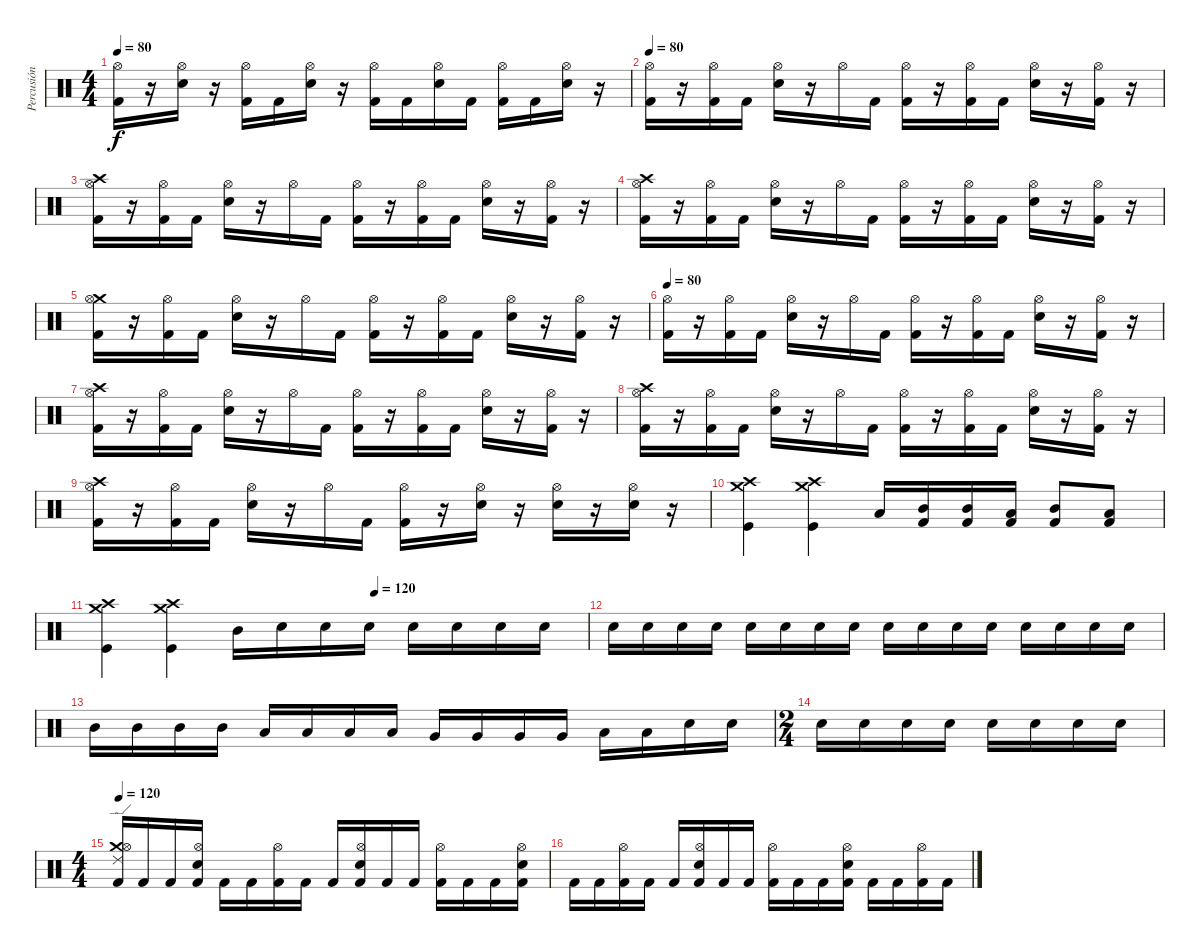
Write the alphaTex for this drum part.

\track ("Percusión" "Percusión") {instrument percussion}
\staff {score}
\articulation defaults
\ts (4 4)
\tempo 80
\clef neutral
\ks c
("Kick (hit) 2" "Hi-Hat (open)").16{dy f} r.16 ("Electric Snare (hit)" "Hi-Hat (open)").16 r.16 ("Kick (hit) 2" "Hi-Hat (open)").16 "Kick (hit) 2".16 ("Electric Snare (hit)" "Hi-Hat (open)").16 r.16 ("Kick (hit) 2" "Hi-Hat (open)").16 "Kick (hit) 2".16 ("Electric Snare (hit)" "Hi-Hat (open)").16 "Kick (hit) 2".16 ("Kick (hit) 2" "Hi-Hat (open)").16 "Kick (hit) 2".16 ("Electric Snare (hit)" "Hi-Hat (open)").16 r.16 |
\tempo 80
("Kick (hit) 2" "Hi-Hat (open)").16 r.16 ("Kick (hit) 2" "Hi-Hat (open)").16 "Kick (hit) 2".16 ("Electric Snare (hit)" "Hi-Hat (open)").16 r.16 "Hi-Hat (open)".16 "Kick (hit) 2".16 ("Kick (hit) 2" "Hi-Hat (open)").16 r.16 ("Kick (hit) 2" "Hi-Hat (open)").16 "Kick (hit) 2".16 ("Electric Snare (hit)" "Hi-Hat (open)").16 r.16 ("Kick (hit) 2" "Hi-Hat (open)").16 r.16 |
("Kick (hit) 2" "Crash high (hit)" "Hi-Hat (open)").16 r.16 ("Kick (hit) 2" "Hi-Hat (open)").16 "Kick (hit) 2".16 ("Electric Snare (hit)" "Hi-Hat (open)").16 r.16 "Hi-Hat (open)".16 "Kick (hit) 2".16 ("Kick (hit) 2" "Hi-Hat (open)").16 r.16 ("Kick (hit) 2" "Hi-Hat (open)").16 "Kick (hit) 2".16 ("Electric Snare (hit)" "Hi-Hat (open)").16 r.16 ("Kick (hit) 2" "Hi-Hat (open)").16 r.16 |
("Kick (hit) 2" "Crash high (hit)" "Hi-Hat (open)").16 r.16 ("Kick (hit) 2" "Hi-Hat (open)").16 "Kick (hit) 2".16 ("Electric Snare (hit)" "Hi-Hat (open)").16 r.16 "Hi-Hat (open)".16 "Kick (hit) 2".16 ("Kick (hit) 2" "Hi-Hat (open)").16 r.16 ("Kick (hit) 2" "Hi-Hat (open)").16 "Kick (hit) 2".16 ("Electric Snare (hit)" "Hi-Hat (open)").16 r.16 ("Kick (hit) 2" "Hi-Hat (open)").16 r.16 |
("Kick (hit) 2" "Crash medium (hit)" "Hi-Hat (open)").16 r.16 ("Kick (hit) 2" "Hi-Hat (open)").16 "Kick (hit) 2".16 ("Electric Snare (hit)" "Hi-Hat (open)").16 r.16 "Hi-Hat (open)".16 "Kick (hit) 2".16 ("Kick (hit) 2" "Hi-Hat (open)").16 r.16 ("Kick (hit) 2" "Hi-Hat (open)").16 "Kick (hit) 2".16 ("Electric Snare (hit)" "Hi-Hat (open)").16 r.16 ("Kick (hit) 2" "Hi-Hat (open)").16 r.16 |
\tempo 80
("Kick (hit) 2" "Hi-Hat (open)").16 r.16 ("Kick (hit) 2" "Hi-Hat (open)").16 "Kick (hit) 2".16 ("Electric Snare (hit)" "Hi-Hat (open)").16 r.16 "Hi-Hat (open)".16 "Kick (hit) 2".16 ("Kick (hit) 2" "Hi-Hat (open)").16 r.16 ("Kick (hit) 2" "Hi-Hat (open)").16 "Kick (hit) 2".16 ("Electric Snare (hit)" "Hi-Hat (open)").16 r.16 ("Kick (hit) 2" "Hi-Hat (open)").16 r.16 |
("Kick (hit) 2" "Crash high (hit)" "Hi-Hat (open)").16 r.16 ("Kick (hit) 2" "Hi-Hat (open)").16 "Kick (hit) 2".16 ("Electric Snare (hit)" "Hi-Hat (open)").16 r.16 "Hi-Hat (open)".16 "Kick (hit) 2".16 ("Kick (hit) 2" "Hi-Hat (open)").16 r.16 ("Kick (hit) 2" "Hi-Hat (open)").16 "Kick (hit) 2".16 ("Electric Snare (hit)" "Hi-Hat (open)").16 r.16 ("Kick (hit) 2" "Hi-Hat (open)").16 r.16 |
("Kick (hit) 2" "Crash high (hit)" "Hi-Hat (open)").16 r.16 ("Kick (hit) 2" "Hi-Hat (open)").16 "Kick (hit) 2".16 ("Electric Snare (hit)" "Hi-Hat (open)").16 r.16 "Hi-Hat (open)".16 "Kick (hit) 2".16 ("Kick (hit) 2" "Hi-Hat (open)").16 r.16 ("Kick (hit) 2" "Hi-Hat (open)").16 "Kick (hit) 2".16 ("Electric Snare (hit)" "Hi-Hat (open)").16 r.16 ("Kick (hit) 2" "Hi-Hat (open)").16 r.16 |
("Kick (hit) 2" "Crash high (hit)" "Hi-Hat (open)").16 r.16 ("Kick (hit) 2" "Hi-Hat (open)").16 "Kick (hit) 2".16 ("Electric Snare (hit)" "Hi-Hat (open)").16 r.16 "Hi-Hat (open)".16 "Kick (hit) 2".16 ("Kick (hit) 2" "Hi-Hat (open)").16 r.16 ("Electric Snare (hit)" "Hi-Hat (open)").16 r.16 ("Electric Snare (hit)" "Hi-Hat (open)").16 r.16 ("Electric Snare (hit)" "Hi-Hat (open)").16 r.16 |
("Kick (hit)" "Crash medium (hit)" "Crash high (hit)").4 ("Kick (hit)" "Crash medium (hit)" "Crash high (hit)").4 "Low Tom (hit)".16 ("Kick (hit) 2" "Mid Tom (hit)").16 ("Kick (hit) 2" "Mid Tom (hit)").16 ("Kick (hit) 2" "Low Tom (hit)").16 ("Kick (hit) 2" "Mid Tom (hit)").8 ("Kick (hit) 2" "Low Tom (hit)").8 |
\tempo (120 0.5625)
("Kick (hit)" "Crash medium (hit)" "Crash high (hit)").4 ("Kick (hit)" "Crash medium (hit)" "Crash high (hit)").4 "Mid Tom (hit)".16 "Electric Snare (hit)".16 "Electric Snare (hit)".16 "Electric Snare (hit)".16 "Electric Snare (hit)".16 "Electric Snare (hit)".16 "Electric Snare (hit)".16 "Electric Snare (hit)".16 |
"Electric Snare (hit)".16 "Electric Snare (hit)".16 "Electric Snare (hit)".16 "Electric Snare (hit)".16 "Electric Snare (hit)".16 "Electric Snare (hit)".16 "Electric Snare (hit)".16 "Electric Snare (hit)".16 "Electric Snare (hit)".16 "Electric Snare (hit)".16 "Electric Snare (hit)".16 "Electric Snare (hit)".16 "Electric Snare (hit)".16 "Electric Snare (hit)".16 "Electric Snare (hit)".16 "Electric Snare (hit)".16 |
"Mid Tom (hit)".16 "Mid Tom (hit)".16 "Mid Tom (hit)".16 "Mid Tom (hit)".16 "Low Tom (hit)".16 "Low Tom (hit)".16 "Low Tom (hit)".16 "Low Tom (hit)".16 "Very Low Tom (hit)".16 "Very Low Tom (hit)".16 "Very Low Tom (hit)".16 "Very Low Tom (hit)".16 "Low Floor Tom (hit)".16 "Low Floor Tom (hit)".16 "Electric Snare (hit)".16 "Electric Snare (hit)".16 |
\ts (2 4)
"Electric Snare (hit)".16 "Electric Snare (hit)".16 "Electric Snare (hit)".16 "Electric Snare (hit)".16 "Electric Snare (hit)".16 "Electric Snare (hit)".16 "Electric Snare (hit)".16 "Electric Snare (hit)".16 |
\ts (4 4)
\tempo 120
("Kick (hit) 2" "Crash medium (hit)" "Ride (edge) 2" "Hi-Hat (open)").16 "Kick (hit) 2".16 "Kick (hit) 2".16 ("Kick (hit) 2" "Hi-Hat (open)" "Electric Snare (hit)").16 "Kick (hit) 2".16 "Kick (hit) 2".16 ("Kick (hit) 2" "Hi-Hat (open)").16 "Kick (hit) 2".16 "Kick (hit) 2".16 ("Kick (hit) 2" "Hi-Hat (open)" "Electric Snare (hit)").16 "Kick (hit) 2".16 "Kick (hit) 2".16 ("Kick (hit) 2" "Hi-Hat (open)").16 "Kick (hit) 2".16 "Kick (hit) 2".16 ("Kick (hit) 2" "Hi-Hat (open)" "Electric Snare (hit)").16 |
"Kick (hit) 2".16 "Kick (hit) 2".16 ("Kick (hit) 2" "Hi-Hat (open)").16 "Kick (hit) 2".16 "Kick (hit) 2".16 ("Kick (hit) 2" "Hi-Hat (open)" "Electric Snare (hit)").16 "Kick (hit) 2".16 "Kick (hit) 2".16 ("Kick (hit) 2" "Hi-Hat (open)").16 "Kick (hit) 2".16 "Kick (hit) 2".16 ("Kick (hit) 2" "Hi-Hat (open)" "Electric Snare (hit)").16 "Kick (hit) 2".16 "Kick (hit) 2".16 ("Kick (hit) 2" "Hi-Hat (open)").16 "Kick (hit) 2".16
